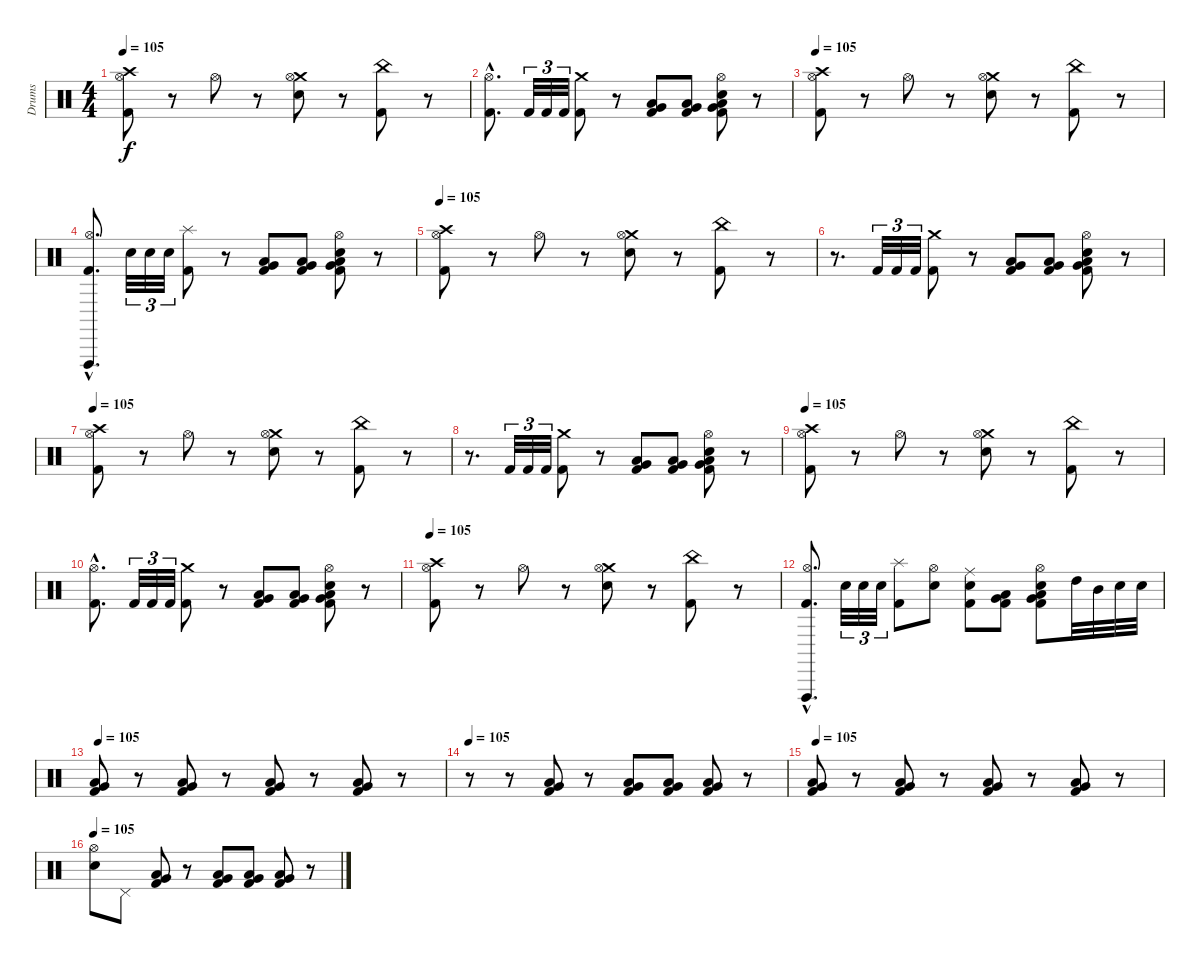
\track ("Drums" "Drums") {instrument percussion}
\staff {score}
\articulation defaults
\ts (4 4)
\tempo 105
\clef neutral
\ks c
("Crash high (hit)" "Hi-Hat (open)" "Kick (hit) 2").8{dy f} r.8 "Hi-Hat (open)".8 r.8 ("Crash medium (hit)" "Hi-Hat (open)" "Electric Snare (hit)").8 r.8 ("China (hit)" "Kick (hit) 2").8 r.8 |
("Hi-Hat (open)"{hac} "Kick (hit) 2"{hac}).8{d} "Kick (hit) 2".32{tu (3 2)} "Kick (hit) 2".32{tu (3 2)} "Kick (hit) 2".32{tu (3 2)} ("Crash medium (hit)" "Kick (hit) 2").8 r.8 ("Low Tom (hit)" "Very Low Tom (hit)" "Kick (hit) 2").8 ("Low Tom (hit)" "Very Low Tom (hit)" "Kick (hit) 2").8 ("Hi-Hat (open)" "Electric Snare (hit)" "Low Tom (hit)" "Very Low Tom (hit)" "Kick (hit) 2").8 r.8 |
\tempo 105
("Crash high (hit)" "Hi-Hat (open)" "Kick (hit) 2").8 r.8 "Hi-Hat (open)".8 r.8 ("Crash medium (hit)" "Hi-Hat (open)" "Electric Snare (hit)").8 r.8 ("China (hit)" "Kick (hit) 2").8 r.8 |
("Vibraslap (hit)"{hac} "Hi-Hat (open)"{hac} "Kick (hit) 2"{hac}).8{d} "Electric Snare (hit)".32{tu (3 2)} "Electric Snare (hit)".32{tu (3 2)} "Electric Snare (hit)".32{tu (3 2)} ("Splash (hit)" "Kick (hit) 2").8 r.8 ("Low Tom (hit)" "Very Low Tom (hit)" "Kick (hit) 2").8 ("Low Tom (hit)" "Very Low Tom (hit)" "Kick (hit) 2").8 ("Hi-Hat (open)" "Electric Snare (hit)" "Low Tom (hit)" "Very Low Tom (hit)" "Kick (hit) 2").8 r.8 |
\tempo 105
("Crash high (hit)" "Hi-Hat (open)" "Kick (hit) 2").8 r.8 "Hi-Hat (open)".8 r.8 ("Crash medium (hit)" "Hi-Hat (open)" "Electric Snare (hit)").8 r.8 ("China (hit)" "Kick (hit) 2").8 r.8 |
r.8{d} "Kick (hit) 2".32{tu (3 2)} "Kick (hit) 2".32{tu (3 2)} "Kick (hit) 2".32{tu (3 2)} ("Crash medium (hit)" "Kick (hit) 2").8 r.8 ("Low Tom (hit)" "Very Low Tom (hit)" "Kick (hit) 2").8 ("Low Tom (hit)" "Very Low Tom (hit)" "Kick (hit) 2").8 ("Hi-Hat (open)" "Electric Snare (hit)" "Low Tom (hit)" "Very Low Tom (hit)" "Kick (hit) 2").8 r.8 |
\tempo 105
("Crash high (hit)" "Hi-Hat (open)" "Kick (hit) 2").8 r.8 "Hi-Hat (open)".8 r.8 ("Crash medium (hit)" "Hi-Hat (open)" "Electric Snare (hit)").8 r.8 ("China (hit)" "Kick (hit) 2").8 r.8 |
r.8{d} "Kick (hit) 2".32{tu (3 2)} "Kick (hit) 2".32{tu (3 2)} "Kick (hit) 2".32{tu (3 2)} ("Crash medium (hit)" "Kick (hit) 2").8 r.8 ("Low Tom (hit)" "Very Low Tom (hit)" "Kick (hit) 2").8 ("Low Tom (hit)" "Very Low Tom (hit)" "Kick (hit) 2").8 ("Hi-Hat (open)" "Electric Snare (hit)" "Low Tom (hit)" "Very Low Tom (hit)" "Kick (hit) 2").8 r.8 |
\tempo 105
("Crash high (hit)" "Hi-Hat (open)" "Kick (hit) 2").8 r.8 "Hi-Hat (open)".8 r.8 ("Crash medium (hit)" "Hi-Hat (open)" "Electric Snare (hit)").8 r.8 ("China (hit)" "Kick (hit) 2").8 r.8 |
("Hi-Hat (open)"{hac} "Kick (hit) 2"{hac}).8{d} "Kick (hit) 2".32{tu (3 2)} "Kick (hit) 2".32{tu (3 2)} "Kick (hit) 2".32{tu (3 2)} ("Crash medium (hit)" "Kick (hit) 2").8 r.8 ("Low Tom (hit)" "Very Low Tom (hit)" "Kick (hit) 2").8 ("Low Tom (hit)" "Very Low Tom (hit)" "Kick (hit) 2").8 ("Hi-Hat (open)" "Electric Snare (hit)" "Low Tom (hit)" "Very Low Tom (hit)" "Kick (hit) 2").8 r.8 |
\tempo 105
("Crash high (hit)" "Hi-Hat (open)" "Kick (hit) 2").8 r.8 "Hi-Hat (open)".8 r.8 ("Crash medium (hit)" "Hi-Hat (open)" "Electric Snare (hit)").8 r.8 ("China (hit)" "Kick (hit) 2").8 r.8 |
("Vibraslap (hit)"{hac} "Hi-Hat (open)"{hac} "Kick (hit) 2"{hac}).8{d} "Electric Snare (hit)".32{tu (3 2)} "Electric Snare (hit)".32{tu (3 2)} "Electric Snare (hit)".32{tu (3 2)} ("Splash (hit)" "Kick (hit) 2").8 ("Hi-Hat (open)" "Electric Snare (hit)").8 ("Ride (middle)" "Electric Snare (hit)" "Kick (hit) 2").8 ("Low Tom (hit)" "Very Low Tom (hit)" "Kick (hit) 2").8 ("Hi-Hat (open)" "Electric Snare (hit)" "Low Tom (hit)" "Very Low Tom (hit)" "Kick (hit) 2").8 "High Tom (hit)".32 "Mid Tom (hit)".32 "Electric Snare (hit)".32 "Electric Snare (hit)".32 |
\tempo 105
("Very Low Tom (hit)" "Low Tom (hit)" "Kick (hit) 2").8 r.8 ("Low Tom (hit)" "Very Low Tom (hit)" "Kick (hit) 2").8 r.8 ("Low Tom (hit)" "Very Low Tom (hit)" "Kick (hit) 2").8 r.8 ("Low Tom (hit)" "Very Low Tom (hit)" "Kick (hit) 2").8 r.8 |
\tempo 105
r.8 r.8 ("Low Tom (hit)" "Very Low Tom (hit)" "Kick (hit) 2").8 r.8 ("Low Tom (hit)" "Very Low Tom (hit)" "Kick (hit) 2").8 ("Low Tom (hit)" "Very Low Tom (hit)" "Kick (hit) 2").8 ("Low Tom (hit)" "Very Low Tom (hit)" "Kick (hit) 2").8 r.8 |
\tempo 105
("Very Low Tom (hit)" "Low Tom (hit)" "Kick (hit) 2").8 r.8 ("Low Tom (hit)" "Very Low Tom (hit)" "Kick (hit) 2").8 r.8 ("Low Tom (hit)" "Very Low Tom (hit)" "Kick (hit) 2").8 r.8 ("Low Tom (hit)" "Very Low Tom (hit)" "Kick (hit) 2").8 r.8 |
\tempo 105
("Hi-Hat (open)" "Electric Snare (hit)").8 "Pedal Hi-Hat (hit)".8 ("Low Tom (hit)" "Very Low Tom (hit)" "Kick (hit) 2").8 r.8 ("Low Tom (hit)" "Very Low Tom (hit)" "Kick (hit) 2").8 ("Low Tom (hit)" "Very Low Tom (hit)" "Kick (hit) 2").8 ("Low Tom (hit)" "Very Low Tom (hit)" "Kick (hit) 2").8 r.8
